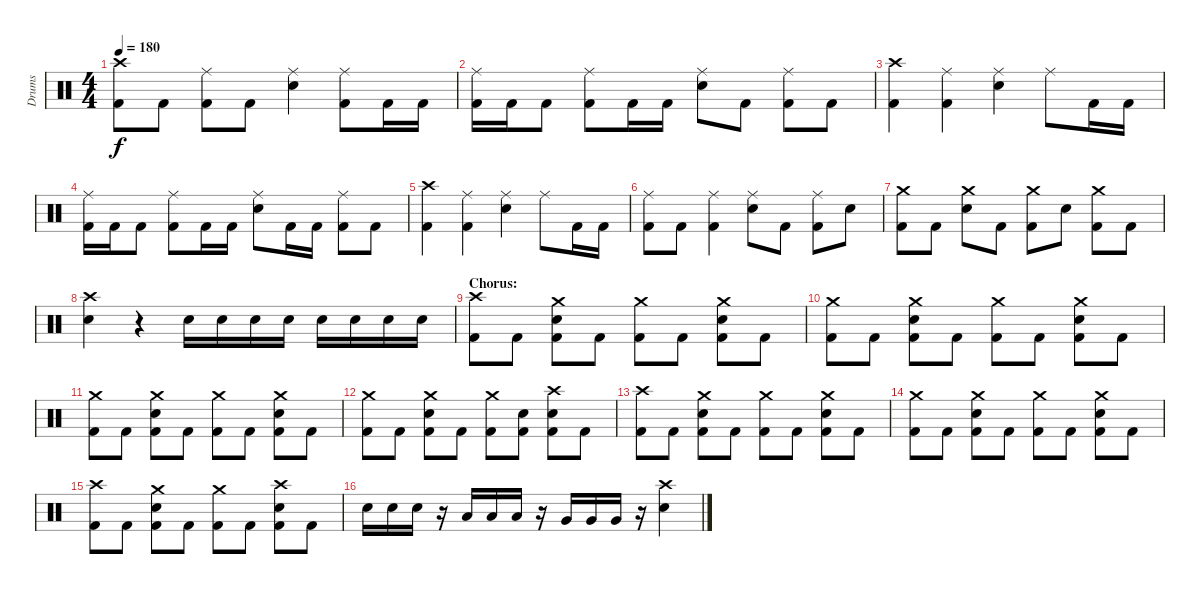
\track ("Drums" "Drums") {instrument percussion}
\staff {score}
\articulation defaults
\ts (4 4)
\tempo 180
\clef neutral
\ks c
("Crash high (hit)" "Kick (hit) 2").8{dy f} "Kick (hit) 2".8 ("Ride (middle)" "Kick (hit) 2").8 "Kick (hit) 2".8 ("Ride (middle)" "Electric Snare (hit)").4 ("Ride (middle)" "Kick (hit) 2").8 "Kick (hit) 2".16 "Kick (hit) 2".16 |
("Ride (middle)" "Kick (hit) 2").16 "Kick (hit) 2".16 "Kick (hit) 2".8 ("Ride (middle)" "Kick (hit) 2").8 "Kick (hit) 2".16 "Kick (hit) 2".16 ("Ride (middle)" "Electric Snare (hit)").8 "Kick (hit) 2".8 ("Ride (middle)" "Kick (hit) 2").8 "Kick (hit) 2".8 |
("Crash high (hit)" "Kick (hit) 2").4 ("Ride (middle)" "Kick (hit) 2").4 ("Ride (middle)" "Electric Snare (hit)").4 "Ride (middle)".8 "Kick (hit) 2".16 "Kick (hit) 2".16 |
("Ride (middle)" "Kick (hit) 2").16 "Kick (hit) 2".16 "Kick (hit) 2".8 ("Ride (middle)" "Kick (hit) 2").8 "Kick (hit) 2".16 "Kick (hit) 2".16 ("Ride (middle)" "Electric Snare (hit)").8 "Kick (hit) 2".16 "Kick (hit) 2".16 ("Ride (middle)" "Kick (hit) 2").8 "Kick (hit) 2".8 |
("Crash high (hit)" "Kick (hit) 2").4 ("Ride (middle)" "Kick (hit) 2").4 ("Ride (middle)" "Electric Snare (hit)").4 "Ride (middle)".8 "Kick (hit) 2".16 "Kick (hit) 2".16 |
("Ride (middle)" "Kick (hit) 2").8 "Kick (hit) 2".8 ("Ride (middle)" "Kick (hit) 2").4 ("Ride (middle)" "Electric Snare (hit)").8 "Kick (hit) 2".8 ("Ride (middle)" "Kick (hit) 2").8 "Electric Snare (hit)".8 |
("Crash medium (hit)" "Kick (hit) 2").8 "Kick (hit) 2".8 ("Crash medium (hit)" "Electric Snare (hit)").8 "Kick (hit) 2".8 ("Crash medium (hit)" "Kick (hit) 2").8 "Electric Snare (hit)".8 ("Crash medium (hit)" "Kick (hit) 2").8 "Kick (hit) 2".8 |
("Crash high (hit)" "Electric Snare (hit)").4 r.4 "Electric Snare (hit)".16 "Electric Snare (hit)".16 "Electric Snare (hit)".16 "Electric Snare (hit)".16 "Electric Snare (hit)".16 "Electric Snare (hit)".16 "Electric Snare (hit)".16 "Electric Snare (hit)".16 |
\section ("" "Chorus:")
("Crash high (hit)" "Kick (hit) 2").8 "Kick (hit) 2".8 ("Crash medium (hit)" "Electric Snare (hit)" "Kick (hit) 2").8 "Kick (hit) 2".8 ("Crash medium (hit)" "Kick (hit) 2").8 "Kick (hit) 2".8 ("Crash medium (hit)" "Electric Snare (hit)" "Kick (hit) 2").8 "Kick (hit) 2".8 |
("Crash medium (hit)" "Kick (hit) 2").8 "Kick (hit) 2".8 ("Crash medium (hit)" "Electric Snare (hit)" "Kick (hit) 2").8 "Kick (hit) 2".8 ("Crash medium (hit)" "Kick (hit) 2").8 "Kick (hit) 2".8 ("Crash medium (hit)" "Electric Snare (hit)" "Kick (hit) 2").8 "Kick (hit) 2".8 |
("Crash medium (hit)" "Kick (hit) 2").8 "Kick (hit) 2".8 ("Crash medium (hit)" "Electric Snare (hit)" "Kick (hit) 2").8 "Kick (hit) 2".8 ("Crash medium (hit)" "Kick (hit) 2").8 "Kick (hit) 2".8 ("Crash medium (hit)" "Electric Snare (hit)" "Kick (hit) 2").8 "Kick (hit) 2".8 |
("Crash medium (hit)" "Kick (hit) 2").8 "Kick (hit) 2".8 ("Crash medium (hit)" "Electric Snare (hit)" "Kick (hit) 2").8 "Kick (hit) 2".8 ("Crash medium (hit)" "Kick (hit) 2").8 ("Electric Snare (hit)" "Kick (hit) 2").8 ("Crash high (hit)" "Electric Snare (hit)" "Kick (hit) 2").8 "Kick (hit) 2".8 |
("Crash high (hit)" "Kick (hit) 2").8 "Kick (hit) 2".8 ("Crash medium (hit)" "Electric Snare (hit)" "Kick (hit) 2").8 "Kick (hit) 2".8 ("Crash medium (hit)" "Kick (hit) 2").8 "Kick (hit) 2".8 ("Crash medium (hit)" "Electric Snare (hit)" "Kick (hit) 2").8 "Kick (hit) 2".8 |
("Crash medium (hit)" "Kick (hit) 2").8 "Kick (hit) 2".8 ("Crash medium (hit)" "Electric Snare (hit)" "Kick (hit) 2").8 "Kick (hit) 2".8 ("Crash medium (hit)" "Kick (hit) 2").8 "Kick (hit) 2".8 ("Crash medium (hit)" "Electric Snare (hit)" "Kick (hit) 2").8 "Kick (hit) 2".8 |
("Crash high (hit)" "Kick (hit) 2").8 "Kick (hit) 2".8 ("Crash medium (hit)" "Electric Snare (hit)" "Kick (hit) 2").8 "Kick (hit) 2".8 ("Crash medium (hit)" "Kick (hit) 2").8 "Kick (hit) 2".8 ("Crash high (hit)" "Electric Snare (hit)" "Kick (hit) 2").8 "Kick (hit) 2".8 |
"Electric Snare (hit)".16 "Electric Snare (hit)".16 "Electric Snare (hit)".16 r.16 "Low Tom (hit)".16 "Low Tom (hit)".16 "Low Tom (hit)".16 r.16 "Very Low Tom (hit)".16 "Very Low Tom (hit)".16 "Very Low Tom (hit)".16 r.16 ("Crash high (hit)" "Electric Snare (hit)").4
